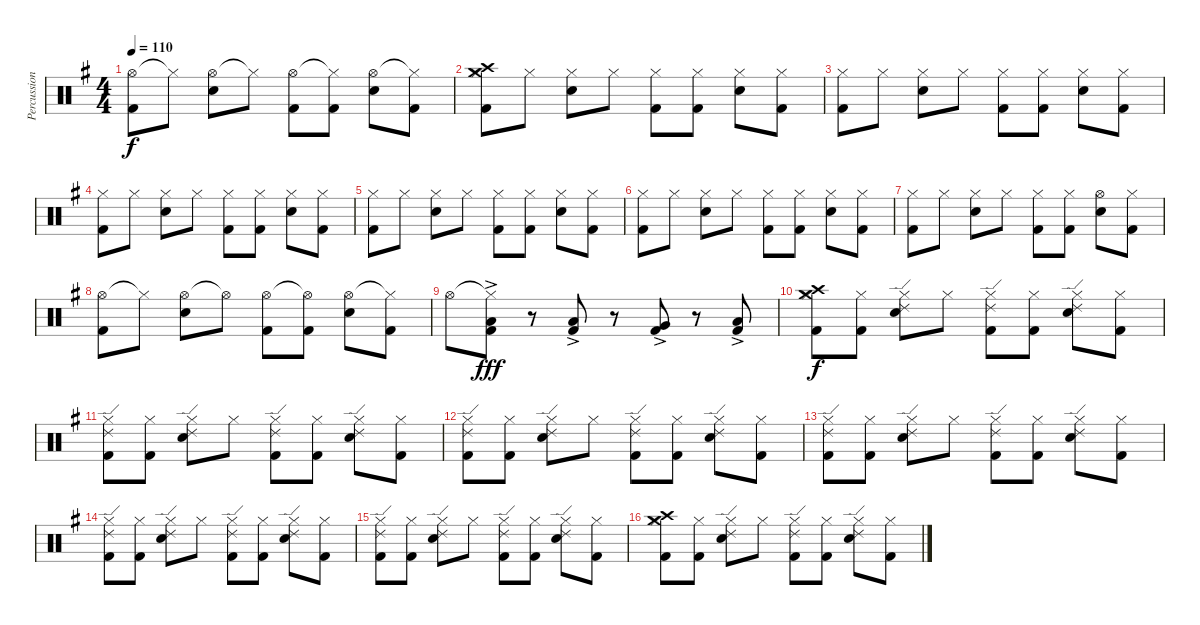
\track ("Percussion" "Percussion") {instrument percussion}
\staff {score}
\articulation defaults
\ts (4 4)
\tempo 110
\clef neutral
\ks g
("Hi-Hat (open)" "Kick (hit) 2").8{dy f} "Hi-Hat (closed)"{t}.8 ("Hi-Hat (open)" "Electric Snare (hit)").8 "Hi-Hat (closed)"{t}.8 ("Hi-Hat (open)" "Kick (hit) 2").8 ("Hi-Hat (closed)"{t} "Kick (hit) 2").8 ("Hi-Hat (open)" "Electric Snare (hit)").8 ("Hi-Hat (closed)"{t} "Kick (hit) 2").8 |
("Crash medium (hit)" "Hi-Hat (closed)" "Crash high (hit)" "Kick (hit) 2").8 "Hi-Hat (closed)".8 ("Hi-Hat (closed)" "Electric Snare (hit)").8 "Hi-Hat (closed)".8 ("Hi-Hat (closed)" "Kick (hit) 2").8 ("Hi-Hat (closed)" "Kick (hit) 2").8 ("Hi-Hat (closed)" "Electric Snare (hit)").8 ("Hi-Hat (closed)" "Kick (hit) 2").8 |
("Hi-Hat (closed)" "Kick (hit) 2").8 "Hi-Hat (closed)".8 ("Hi-Hat (closed)" "Electric Snare (hit)").8 "Hi-Hat (closed)".8 ("Hi-Hat (closed)" "Kick (hit) 2").8 ("Hi-Hat (closed)" "Kick (hit) 2").8 ("Hi-Hat (closed)" "Electric Snare (hit)").8 ("Hi-Hat (closed)" "Kick (hit) 2").8 |
("Hi-Hat (closed)" "Kick (hit) 2").8 "Hi-Hat (closed)".8 ("Hi-Hat (closed)" "Electric Snare (hit)").8 "Hi-Hat (closed)".8 ("Hi-Hat (closed)" "Kick (hit) 2").8 ("Hi-Hat (closed)" "Kick (hit) 2").8 ("Hi-Hat (closed)" "Electric Snare (hit)").8 ("Hi-Hat (closed)" "Kick (hit) 2").8 |
("Hi-Hat (closed)" "Kick (hit) 2").8 "Hi-Hat (closed)".8 ("Hi-Hat (closed)" "Electric Snare (hit)").8 "Hi-Hat (closed)".8 ("Hi-Hat (closed)" "Kick (hit) 2").8 ("Hi-Hat (closed)" "Kick (hit) 2").8 ("Hi-Hat (closed)" "Electric Snare (hit)").8 ("Hi-Hat (closed)" "Kick (hit) 2").8 |
("Hi-Hat (closed)" "Kick (hit) 2").8 "Hi-Hat (closed)".8 ("Hi-Hat (closed)" "Electric Snare (hit)").8 "Hi-Hat (closed)".8 ("Hi-Hat (closed)" "Kick (hit) 2").8 ("Hi-Hat (closed)" "Kick (hit) 2").8 ("Hi-Hat (closed)" "Electric Snare (hit)").8 ("Hi-Hat (closed)" "Kick (hit) 2").8 |
("Hi-Hat (closed)" "Kick (hit) 2").8 "Hi-Hat (closed)".8 ("Hi-Hat (closed)" "Electric Snare (hit)").8 "Hi-Hat (closed)".8 ("Hi-Hat (closed)" "Kick (hit) 2").8 ("Hi-Hat (closed)" "Kick (hit) 2").8 ("Hi-Hat (open)" "Electric Snare (hit)").8 ("Hi-Hat (closed)" "Kick (hit) 2").8 |
("Hi-Hat (open)" "Kick (hit) 2").8 "Hi-Hat (closed)"{t}.8 ("Hi-Hat (open)" "Electric Snare (hit)").8 "Hi-Hat (open)"{t}.8 ("Hi-Hat (open)" "Kick (hit) 2").8 ("Hi-Hat (open)"{t} "Kick (hit) 2").8 ("Hi-Hat (open)" "Electric Snare (hit)").8 ("Hi-Hat (closed)"{t} "Kick (hit) 2").8 |
"Hi-Hat (open)".8 ("Hi-Hat (closed)"{t} "Kick (hit) 2"{ac} "Low Tom (hit)").8{dy fff} r.8 ("Kick (hit) 2"{ac} "Low Tom (hit)").8 r.8 ("Kick (hit) 2"{ac} "Very Low Tom (hit)").8 r.8 ("Kick (hit) 2"{ac} "Low Floor Tom (hit)").8 |
("Crash medium (hit)" "Hi-Hat (closed)" "Crash high (hit)" "Kick (hit) 2").8{dy f} ("Hi-Hat (closed)" "Kick (hit) 2").8 ("Ride (edge) 2" "Hi-Hat (closed)" "Electric Snare (hit)").8 "Hi-Hat (closed)".8 ("Ride (edge) 2" "Hi-Hat (closed)" "Kick (hit) 2").8 ("Hi-Hat (closed)" "Kick (hit) 2").8 ("Ride (edge) 2" "Hi-Hat (closed)" "Electric Snare (hit)").8 ("Hi-Hat (closed)" "Kick (hit) 2").8 |
("Ride (edge) 2" "Hi-Hat (closed)" "Kick (hit) 2").8 ("Hi-Hat (closed)" "Kick (hit) 2").8 ("Ride (edge) 2" "Hi-Hat (closed)" "Electric Snare (hit)").8 "Hi-Hat (closed)".8 ("Ride (edge) 2" "Hi-Hat (closed)" "Kick (hit) 2").8 ("Hi-Hat (closed)" "Kick (hit) 2").8 ("Ride (edge) 2" "Hi-Hat (closed)" "Electric Snare (hit)").8 ("Hi-Hat (closed)" "Kick (hit) 2").8 |
("Ride (edge) 2" "Hi-Hat (closed)" "Kick (hit) 2").8 ("Hi-Hat (closed)" "Kick (hit) 2").8 ("Ride (edge) 2" "Hi-Hat (closed)" "Electric Snare (hit)").8 "Hi-Hat (closed)".8 ("Ride (edge) 2" "Hi-Hat (closed)" "Kick (hit) 2").8 ("Hi-Hat (closed)" "Kick (hit) 2").8 ("Ride (edge) 2" "Hi-Hat (closed)" "Electric Snare (hit)").8 ("Hi-Hat (closed)" "Kick (hit) 2").8 |
("Ride (edge) 2" "Hi-Hat (closed)" "Kick (hit) 2").8 ("Hi-Hat (closed)" "Kick (hit) 2").8 ("Ride (edge) 2" "Hi-Hat (closed)" "Electric Snare (hit)").8 "Hi-Hat (closed)".8 ("Ride (edge) 2" "Hi-Hat (closed)" "Kick (hit) 2").8 ("Hi-Hat (closed)" "Kick (hit) 2").8 ("Ride (edge) 2" "Hi-Hat (closed)" "Electric Snare (hit)").8 ("Hi-Hat (closed)" "Kick (hit) 2").8 |
("Ride (edge) 2" "Hi-Hat (closed)" "Kick (hit) 2").8 ("Hi-Hat (closed)" "Kick (hit) 2").8 ("Ride (edge) 2" "Hi-Hat (closed)" "Electric Snare (hit)").8 "Hi-Hat (closed)".8 ("Ride (edge) 2" "Hi-Hat (closed)" "Kick (hit) 2").8 ("Hi-Hat (closed)" "Kick (hit) 2").8 ("Ride (edge) 2" "Hi-Hat (closed)" "Electric Snare (hit)").8 ("Hi-Hat (closed)" "Kick (hit) 2").8 |
("Ride (edge) 2" "Hi-Hat (closed)" "Kick (hit) 2").8 ("Hi-Hat (closed)" "Kick (hit) 2").8 ("Ride (edge) 2" "Hi-Hat (closed)" "Electric Snare (hit)").8 "Hi-Hat (closed)".8 ("Ride (edge) 2" "Hi-Hat (closed)" "Kick (hit) 2").8 ("Hi-Hat (closed)" "Kick (hit) 2").8 ("Ride (edge) 2" "Hi-Hat (closed)" "Electric Snare (hit)").8 ("Hi-Hat (closed)" "Kick (hit) 2").8 |
("Crash medium (hit)" "Hi-Hat (closed)" "Crash high (hit)" "Kick (hit) 2").8 ("Hi-Hat (closed)" "Kick (hit) 2").8 ("Ride (edge) 2" "Hi-Hat (closed)" "Electric Snare (hit)").8 "Hi-Hat (closed)".8 ("Ride (edge) 2" "Hi-Hat (closed)" "Kick (hit) 2").8 ("Hi-Hat (closed)" "Kick (hit) 2").8 ("Ride (edge) 2" "Hi-Hat (closed)" "Electric Snare (hit)").8 ("Hi-Hat (closed)" "Kick (hit) 2").8
